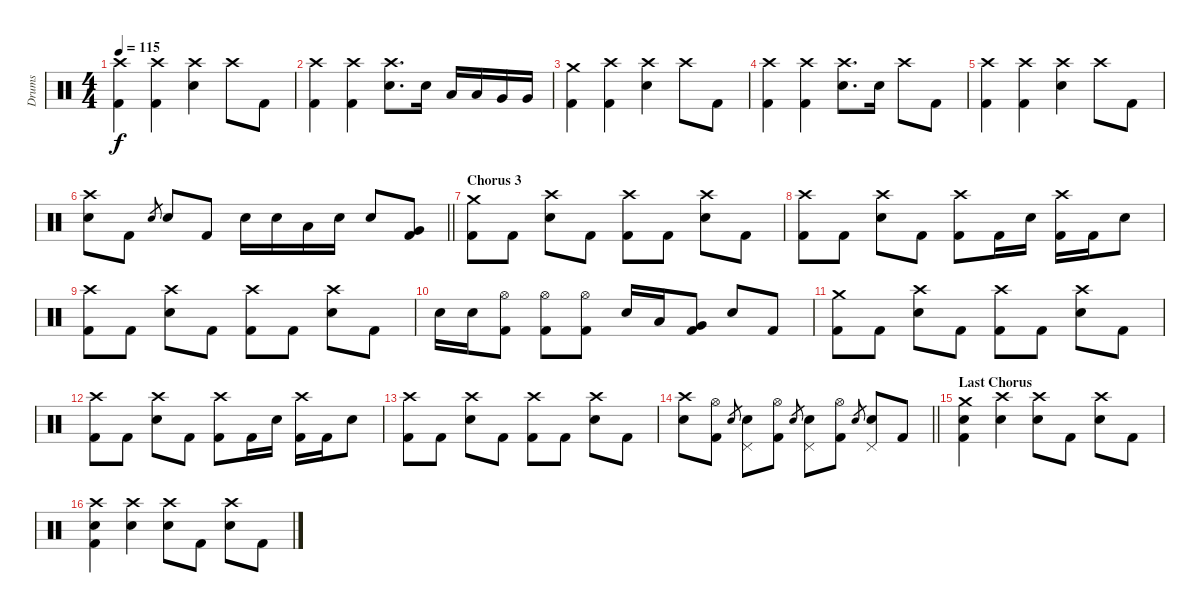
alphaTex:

\track ("Drums" "Drums") {instrument percussion}
\staff {score}
\articulation defaults
\ts (4 4)
\tempo 115
\clef neutral
\ks c
("Crash high (hit)" "Kick (hit) 2").4{dy f} ("Crash high (hit)" "Kick (hit) 2").4 ("Crash high (hit)" "Electric Snare (hit)").4 "Crash high (hit)".8 "Kick (hit) 2".8 |
("Crash high (hit)" "Kick (hit) 2").4 ("Crash high (hit)" "Kick (hit) 2").4 ("Crash high (hit)" "Electric Snare (hit)").8{d} "Electric Snare (hit)".16 "Low Tom (hit)".16 "Low Tom (hit)".16 "Very Low Tom (hit)".16 "Very Low Tom (hit)".16 |
("Crash medium (hit)" "Kick (hit) 2").4 ("Crash high (hit)" "Kick (hit) 2").4 ("Crash high (hit)" "Electric Snare (hit)").4 "Crash high (hit)".8 "Kick (hit) 2".8 |
("Crash high (hit)" "Kick (hit) 2").4 ("Crash high (hit)" "Kick (hit) 2").4 ("Crash high (hit)" "Electric Snare (hit)").8{d} "Electric Snare (hit)".16 "Crash high (hit)".8 "Kick (hit) 2".8 |
("Crash high (hit)" "Kick (hit) 2").4 ("Crash high (hit)" "Kick (hit) 2").4 ("Crash high (hit)" "Electric Snare (hit)").4 "Crash high (hit)".8 "Kick (hit) 2".8 |
\barLineRight lightlight
("Crash high (hit)" "Electric Snare (hit)").8 "Kick (hit) 2".8 "Electric Snare (hit)".8{gr} "Electric Snare (hit)".8 "Kick (hit) 2".8 "Electric Snare (hit)".16 "Electric Snare (hit)".16 "Low Tom (hit)".16 "Electric Snare (hit)".16 "Electric Snare (hit)".8 ("Very Low Tom (hit)" "Kick (hit) 2").8 |
\section ("" "Chorus 3")
("Crash medium (hit)" "Kick (hit) 2").8 "Kick (hit) 2".8 ("Crash high (hit)" "Electric Snare (hit)").8 "Kick (hit) 2".8 ("Crash high (hit)" "Kick (hit) 2").8 "Kick (hit) 2".8 ("Crash high (hit)" "Electric Snare (hit)").8 "Kick (hit) 2".8 |
("Crash high (hit)" "Kick (hit) 2").8 "Kick (hit) 2".8 ("Crash high (hit)" "Electric Snare (hit)").8 "Kick (hit) 2".8 ("Crash high (hit)" "Kick (hit) 2").8 "Kick (hit) 2".16 "Electric Snare (hit)".16 ("Crash high (hit)" "Kick (hit) 2").16 "Kick (hit) 2".16 "Electric Snare (hit)".8 |
("Crash high (hit)" "Kick (hit) 2").8 "Kick (hit) 2".8 ("Crash high (hit)" "Electric Snare (hit)").8 "Kick (hit) 2".8 ("Crash high (hit)" "Kick (hit) 2").8 "Kick (hit) 2".8 ("Crash high (hit)" "Electric Snare (hit)").8 "Kick (hit) 2".8 |
"Electric Snare (hit)".16 "Electric Snare (hit)".16 ("Hi-Hat (open)" "Kick (hit) 2").8 ("Hi-Hat (open)" "Kick (hit) 2").8 ("Hi-Hat (open)" "Kick (hit) 2").8 "Electric Snare (hit)".16 "Low Tom (hit)".16 ("Very Low Tom (hit)" "Kick (hit) 2").8 "Electric Snare (hit)".8 "Kick (hit) 2".8 |
("Crash medium (hit)" "Kick (hit) 2").8 "Kick (hit) 2".8 ("Crash high (hit)" "Electric Snare (hit)").8 "Kick (hit) 2".8 ("Crash high (hit)" "Kick (hit) 2").8 "Kick (hit) 2".8 ("Crash high (hit)" "Electric Snare (hit)").8 "Kick (hit) 2".8 |
("Crash high (hit)" "Kick (hit) 2").8 "Kick (hit) 2".8 ("Crash high (hit)" "Electric Snare (hit)").8 "Kick (hit) 2".8 ("Crash high (hit)" "Kick (hit) 2").8 "Kick (hit) 2".16 "Electric Snare (hit)".16 ("Crash high (hit)" "Kick (hit) 2").16 "Kick (hit) 2".16 "Electric Snare (hit)".8 |
("Crash high (hit)" "Kick (hit) 2").8 "Kick (hit) 2".8 ("Crash high (hit)" "Electric Snare (hit)").8 "Kick (hit) 2".8 ("Crash high (hit)" "Kick (hit) 2").8 "Kick (hit) 2".8 ("Crash high (hit)" "Electric Snare (hit)").8 "Kick (hit) 2".8 |
\barLineRight lightlight
("Crash high (hit)" "Electric Snare (hit)").8 ("Hi-Hat (open)" "Kick (hit) 2").8 "Electric Snare (hit)".8{gr} ("Pedal Hi-Hat (hit)" "Electric Snare (hit)").8 ("Hi-Hat (open)" "Kick (hit) 2").8 "Electric Snare (hit)".8{gr} ("Pedal Hi-Hat (hit)" "Electric Snare (hit)").8 ("Hi-Hat (open)" "Kick (hit) 2").8 "Electric Snare (hit)".8{gr} ("Pedal Hi-Hat (hit)" "Electric Snare (hit)").8 "Kick (hit) 2".8 |
\section ("" "Last Chorus")
("Crash medium (hit)" "Electric Snare (hit)" "Kick (hit) 2").4 ("Crash high (hit)" "Electric Snare (hit)").4 ("Crash high (hit)" "Electric Snare (hit)").8 "Kick (hit) 2".8 ("Crash high (hit)" "Electric Snare (hit)").8 "Kick (hit) 2".8 |
("Crash high (hit)" "Electric Snare (hit)" "Kick (hit) 2").4 ("Crash high (hit)" "Electric Snare (hit)").4 ("Crash high (hit)" "Electric Snare (hit)").8 "Kick (hit) 2".8 ("Crash high (hit)" "Electric Snare (hit)").8 "Kick (hit) 2".8
